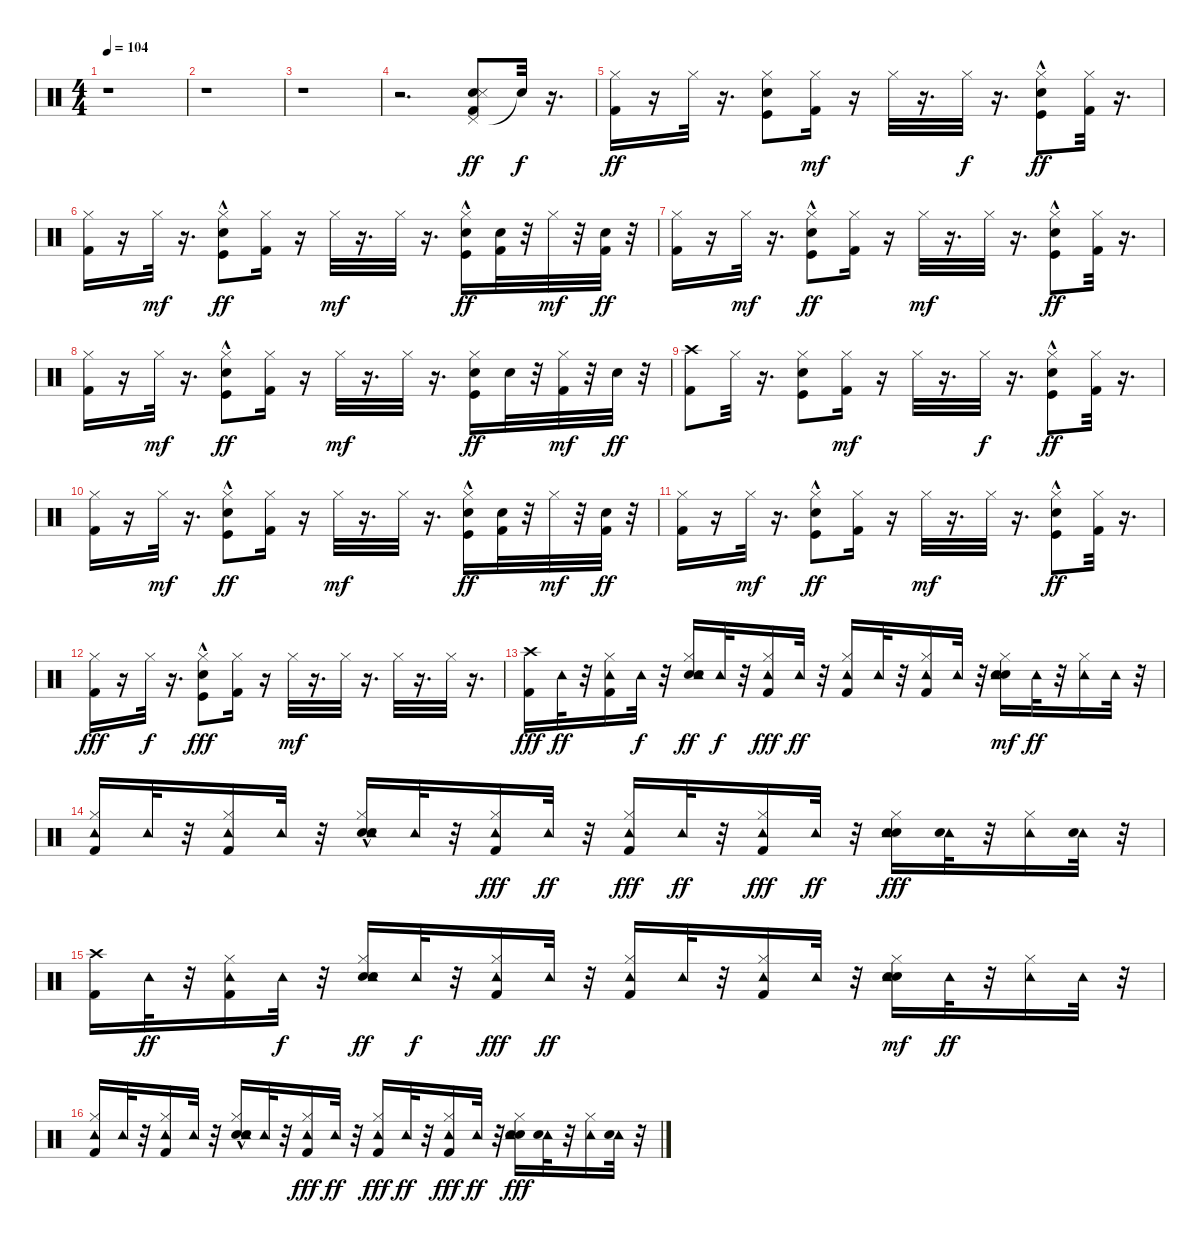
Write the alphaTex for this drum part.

\track "" {instrument percussion}
\staff {score}
\articulation defaults
\ts (4 4)
\tempo 104
\clef neutral
\ks c
r.1{dy ff} |
r.1 |
r.1 |
r.2{d} ("Pedal Hi-Hat (hit)" "Kick (hit) 2" "Hand Clap (hit)" "Metronome (hit)").8 "Snare (hit)"{t}.32{dy f} r.16{d} |
("Kick (hit) 2" "Hi-Hat (closed)").16{dy ff} r.16 "Hi-Hat (closed)".32 r.16{d} ("Hi-Hat (closed)" "Hand Clap (hit)" "Kick (hit)").8 ("Kick (hit) 2" "Hi-Hat (closed)").16{dy mf} r.16 "Hi-Hat (closed)".32 r.16{d} "Hi-Hat (closed)".32{dy f} r.16{d} ("Hi-Hat (closed)" "Hand Clap (hit)" "Kick (hit)"{hac}).8{dy ff} ("Hi-Hat (closed)" "Kick (hit) 2").32 r.16{d} |
("Hi-Hat (closed)" "Kick (hit) 2").16 r.16 "Hi-Hat (closed)".32{dy mf} r.16{d} ("Hi-Hat (closed)" "Hand Clap (hit)" "Kick (hit)"{hac}).8{dy ff} ("Hi-Hat (closed)" "Kick (hit) 2").16 r.16 "Hi-Hat (closed)".32{dy mf} r.16{d} "Hi-Hat (closed)".32 r.16{d} ("Hand Clap (hit)" "Hi-Hat (closed)" "Kick (hit)"{hac}).16{dy ff} ("Kick (hit) 2" "Electric Snare (hit)").32 r.32 "Hi-Hat (closed)".32{dy mf} r.32 ("Kick (hit) 2" "Electric Snare (hit)").32{dy ff} r.32 |
("Hi-Hat (closed)" "Kick (hit) 2").16 r.16 "Hi-Hat (closed)".32{dy mf} r.16{d} ("Hand Clap (hit)" "Hi-Hat (closed)" "Kick (hit)"{hac}).8{dy ff} ("Hi-Hat (closed)" "Kick (hit) 2").16 r.16 "Hi-Hat (closed)".32{dy mf} r.16{d} "Hi-Hat (closed)".32 r.16{d} ("Hi-Hat (closed)" "Hand Clap (hit)" "Kick (hit)"{hac}).8{dy ff} ("Hi-Hat (closed)" "Kick (hit) 2").32 r.16{d} |
("Hi-Hat (closed)" "Kick (hit) 2").16 r.16 "Hi-Hat (closed)".32{dy mf} r.16{d} ("Hand Clap (hit)" "Hi-Hat (closed)" "Kick (hit)"{hac}).8{dy ff} ("Hi-Hat (closed)" "Kick (hit) 2").16 r.16 "Hi-Hat (closed)".32{dy mf} r.16{d} "Hi-Hat (closed)".32 r.16{d} ("Hi-Hat (closed)" "Hand Clap (hit)" "Kick (hit)").16{dy ff} "Electric Snare (hit)".32 r.32 ("Kick (hit) 2" "Hi-Hat (closed)").32{dy mf} r.32 "Electric Snare (hit)".32{dy ff} r.32 |
("Kick (hit) 2" "Crash high (hit)").8 "Hi-Hat (closed)".32 r.16{d} ("Hi-Hat (closed)" "Hand Clap (hit)" "Kick (hit)").8 ("Kick (hit) 2" "Hi-Hat (closed)").16{dy mf} r.16 "Hi-Hat (closed)".32 r.16{d} "Hi-Hat (closed)".32{dy f} r.16{d} ("Hi-Hat (closed)" "Hand Clap (hit)" "Kick (hit)"{hac}).8{dy ff} ("Hi-Hat (closed)" "Kick (hit) 2").32 r.16{d} |
("Hi-Hat (closed)" "Kick (hit) 2").16 r.16 "Hi-Hat (closed)".32{dy mf} r.16{d} ("Hi-Hat (closed)" "Hand Clap (hit)" "Kick (hit)"{hac}).8{dy ff} ("Hi-Hat (closed)" "Kick (hit) 2").16 r.16 "Hi-Hat (closed)".32{dy mf} r.16{d} "Hi-Hat (closed)".32 r.16{d} ("Hand Clap (hit)" "Hi-Hat (closed)" "Kick (hit)"{hac}).16{dy ff} ("Kick (hit) 2" "Electric Snare (hit)").32 r.32 "Hi-Hat (closed)".32{dy mf} r.32 ("Kick (hit) 2" "Electric Snare (hit)").32{dy ff} r.32 |
("Hi-Hat (closed)" "Kick (hit) 2").16 r.16 "Hi-Hat (closed)".32{dy mf} r.16{d} ("Hand Clap (hit)" "Hi-Hat (closed)" "Kick (hit)"{hac}).8{dy ff} ("Hi-Hat (closed)" "Kick (hit) 2").16 r.16 "Hi-Hat (closed)".32{dy mf} r.16{d} "Hi-Hat (closed)".32 r.16{d} ("Hi-Hat (closed)" "Hand Clap (hit)" "Kick (hit)"{hac}).8{dy ff} ("Hi-Hat (closed)" "Kick (hit) 2").32 r.16{d} |
("Hi-Hat (closed)" "Kick (hit) 2").16{dy fff} r.16 "Hi-Hat (closed)".32{dy f} r.16{d} ("Hand Clap (hit)" "Hi-Hat (closed)" "Kick (hit)"{hac}).8{dy fff} ("Hi-Hat (closed)" "Kick (hit) 2").16 r.16 "Hi-Hat (closed)".32{dy mf} r.16{d} "Hi-Hat (closed)".32 r.16{d} "Hi-Hat (closed)".32 r.16{d} "Hi-Hat (closed)".32 r.16{d} |
("Kick (hit) 2" "Crash high (hit)").16{dy fff} "Tambourine (hit)".32{dy ff} r.32 ("Hi-Hat (closed)" "Kick (hit) 2" "Tambourine (hit)").16 "Tambourine (hit)".32{dy f} r.32 ("Hi-Hat (closed)" "Hand Clap (hit)" "Snare (hit) 2" "Tambourine (hit)").16{dy ff} "Tambourine (hit)".32{dy f} r.32 ("Hi-Hat (closed)" "Kick (hit) 2" "Tambourine (hit)").16{dy fff} "Tambourine (hit)".32{dy ff} r.32 ("Hi-Hat (closed)" "Kick (hit) 2" "Tambourine (hit)").16 "Tambourine (hit)".32 r.32 ("Hi-Hat (closed)" "Kick (hit) 2" "Tambourine (hit)").16 "Tambourine (hit)".32 r.32 ("Hi-Hat (closed)" "Hand Clap (hit)" "Snare (hit) 2" "Tambourine (hit)").16{dy mf} "Tambourine (hit)".32{dy ff} r.32 ("Hi-Hat (closed)" "Tambourine (hit)").16 "Tambourine (hit)".32 r.32 |
("Hi-Hat (closed)" "Kick (hit) 2" "Tambourine (hit)").16 "Tambourine (hit)".32 r.32 ("Hi-Hat (closed)" "Kick (hit) 2" "Tambourine (hit)").16 "Tambourine (hit)".32 r.32 ("Hi-Hat (closed)" "Hand Clap (hit)" "Snare (hit) 2"{hac} "Tambourine (hit)").16 "Tambourine (hit)".32 r.32 ("Hi-Hat (closed)" "Kick (hit) 2" "Tambourine (hit)").16{dy fff} "Tambourine (hit)".32{dy ff} r.32 ("Hi-Hat (closed)" "Kick (hit) 2" "Tambourine (hit)").16{dy fff} "Tambourine (hit)".32{dy ff} r.32 ("Hi-Hat (closed)" "Kick (hit) 2" "Tambourine (hit)").16{dy fff} "Tambourine (hit)".32{dy ff} r.32 ("Hand Clap (hit)" "Hi-Hat (closed)" "Snare (hit) 2" "Tambourine (hit)").16{dy fff} ("Tambourine (hit)" "Electric Snare (hit)").32 r.32 ("Hi-Hat (closed)" "Tambourine (hit)").16 ("Tambourine (hit)" "Electric Snare (hit)").32 r.32 |
("Kick (hit) 2" "Crash high (hit)").16 "Tambourine (hit)".32{dy ff} r.32 ("Hi-Hat (closed)" "Kick (hit) 2" "Tambourine (hit)").16 "Tambourine (hit)".32{dy f} r.32 ("Hi-Hat (closed)" "Hand Clap (hit)" "Snare (hit) 2" "Tambourine (hit)").16{dy ff} "Tambourine (hit)".32{dy f} r.32 ("Hi-Hat (closed)" "Kick (hit) 2" "Tambourine (hit)").16{dy fff} "Tambourine (hit)".32{dy ff} r.32 ("Hi-Hat (closed)" "Kick (hit) 2" "Tambourine (hit)").16 "Tambourine (hit)".32 r.32 ("Hi-Hat (closed)" "Kick (hit) 2" "Tambourine (hit)").16 "Tambourine (hit)".32 r.32 ("Hi-Hat (closed)" "Hand Clap (hit)" "Snare (hit) 2" "Tambourine (hit)").16{dy mf} "Tambourine (hit)".32{dy ff} r.32 ("Hi-Hat (closed)" "Tambourine (hit)").16 "Tambourine (hit)".32 r.32 |
("Hi-Hat (closed)" "Kick (hit) 2" "Tambourine (hit)").16 "Tambourine (hit)".32 r.32 ("Hi-Hat (closed)" "Kick (hit) 2" "Tambourine (hit)").16 "Tambourine (hit)".32 r.32 ("Hi-Hat (closed)" "Hand Clap (hit)" "Snare (hit) 2"{hac} "Tambourine (hit)").16 "Tambourine (hit)".32 r.32 ("Hi-Hat (closed)" "Kick (hit) 2" "Tambourine (hit)").16{dy fff} "Tambourine (hit)".32{dy ff} r.32 ("Hi-Hat (closed)" "Kick (hit) 2" "Tambourine (hit)").16{dy fff} "Tambourine (hit)".32{dy ff} r.32 ("Hi-Hat (closed)" "Kick (hit) 2" "Tambourine (hit)").16{dy fff} "Tambourine (hit)".32{dy ff} r.32 ("Hand Clap (hit)" "Hi-Hat (closed)" "Snare (hit) 2" "Tambourine (hit)").16{dy fff} ("Tambourine (hit)" "Electric Snare (hit)").32 r.32 ("Hi-Hat (closed)" "Tambourine (hit)").16 ("Tambourine (hit)" "Electric Snare (hit)").32 r.32
